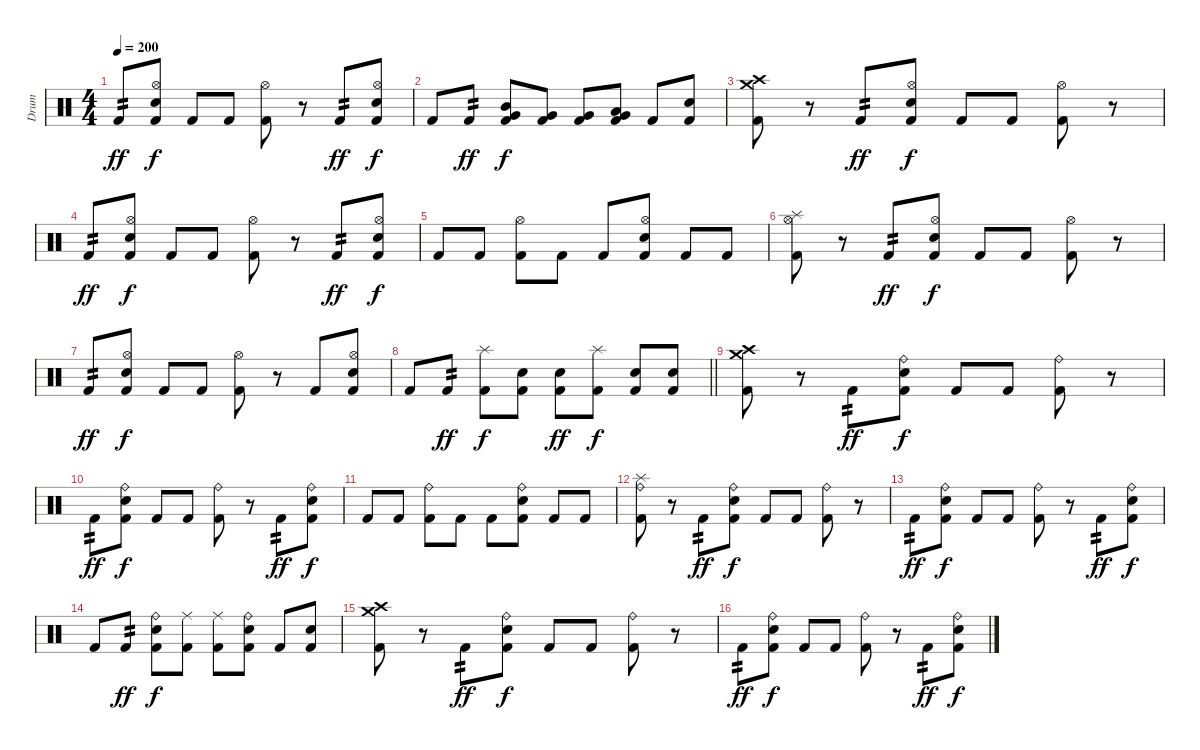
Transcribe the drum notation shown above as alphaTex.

\track ("Drum" "Drum") {instrument percussion}
\staff {score}
\articulation defaults
\ts (4 4)
\tempo 200
\clef neutral
\ks c "Kick (hit) 2".8{tp 2 dy ff}
("Hi-Hat (open)" "Snare (hit) 2" "Kick (hit) 2").8{dy f} "Kick (hit) 2".8 "Kick (hit) 2".8 ("Hi-Hat (open)" "Kick (hit) 2").8 r.8 "Kick (hit) 2".8{tp 2 dy ff} ("Hi-Hat (open)" "Snare (hit) 2" "Kick (hit) 2").8{dy f} |
"Kick (hit) 2".8 "Kick (hit) 2".8{tp 2 dy ff} ("Very Low Tom (hit)" "Mid Tom (hit)" "Kick (hit) 2").8{dy f} ("Very Low Tom (hit)" "Kick (hit) 2").8 ("Very Low Tom (hit)" "Kick (hit) 2").8 ("Very Low Tom (hit)" "Low Tom (hit)" "Kick (hit) 2").8 "Kick (hit) 2".8 ("Snare (hit) 2" "Kick (hit) 2").8 |
("Crash medium (hit)" "Crash high (hit)" "Kick (hit) 2").8 r.8 "Kick (hit) 2".8{tp 2 dy ff} ("Hi-Hat (open)" "Snare (hit) 2" "Kick (hit) 2").8{dy f} "Kick (hit) 2".8 "Kick (hit) 2".8 ("Hi-Hat (open)" "Kick (hit) 2").8 r.8 |
"Kick (hit) 2".8{tp 2 dy ff} ("Hi-Hat (open)" "Snare (hit) 2" "Kick (hit) 2").8{dy f} "Kick (hit) 2".8 "Kick (hit) 2".8 ("Hi-Hat (open)" "Kick (hit) 2").8 r.8 "Kick (hit) 2".8{tp 2 dy ff} ("Hi-Hat (open)" "Snare (hit) 2" "Kick (hit) 2").8{dy f} |
"Kick (hit) 2".8 "Kick (hit) 2".8 ("Hi-Hat (open)" "Kick (hit) 2").8 "Kick (hit) 2".8 "Kick (hit) 2".8 ("Hi-Hat (open)" "Snare (hit) 2" "Kick (hit) 2").8 "Kick (hit) 2".8 "Kick (hit) 2".8 |
("Hi-Hat (open)" "Splash (hit)" "Kick (hit) 2").8 r.8 "Kick (hit) 2".8{tp 2 dy ff} ("Hi-Hat (open)" "Snare (hit) 2" "Kick (hit) 2").8{dy f} "Kick (hit) 2".8 "Kick (hit) 2".8 ("Hi-Hat (open)" "Kick (hit) 2").8 r.8 |
"Kick (hit) 2".8{tp 2 dy ff} ("Hi-Hat (open)" "Snare (hit) 2" "Kick (hit) 2").8{dy f} "Kick (hit) 2".8 "Kick (hit) 2".8 ("Hi-Hat (open)" "Kick (hit) 2").8 r.8 "Kick (hit) 2".8 ("Hi-Hat (open)" "Snare (hit) 2" "Kick (hit) 2").8 |
\barLineRight lightlight "Kick (hit) 2".8 "Kick (hit) 2".8{tp 2 dy ff}
("Splash (hit)" "Kick (hit) 2").8{dy f} ("Snare (hit) 2" "Kick (hit) 2").8 ("Snare (hit) 2" "Kick (hit) 2").8{dy ff} ("Splash (hit)" "Kick (hit) 2").8{dy f} ("Snare (hit) 2" "Kick (hit) 2").8 ("Snare (hit) 2" "Kick (hit) 2").8 |
("Crash medium (hit)" "Crash high (hit)" "Kick (hit) 2").8 r.8 "Kick (hit) 2".8{tp 2 dy ff} ("Ride (bell)" "Snare (hit) 2" "Kick (hit) 2").8{dy f} "Kick (hit) 2".8 "Kick (hit) 2".8 ("Ride (bell)" "Kick (hit) 2").8 r.8 |
"Kick (hit) 2".8{tp 2 dy ff} ("Ride (bell)" "Snare (hit) 2" "Kick (hit) 2").8{dy f} "Kick (hit) 2".8 "Kick (hit) 2".8 ("Ride (bell)" "Kick (hit) 2").8 r.8 "Kick (hit) 2".8{tp 2 dy ff} ("Ride (bell)" "Snare (hit) 2" "Kick (hit) 2").8{dy f} |
"Kick (hit) 2".8 "Kick (hit) 2".8 ("Ride (bell)" "Kick (hit) 2").8 "Kick (hit) 2".8 "Kick (hit) 2".8 ("Ride (bell)" "Snare (hit) 2" "Kick (hit) 2").8 "Kick (hit) 2".8 "Kick (hit) 2".8 |
("Ride (bell)" "Splash (hit)" "Kick (hit) 2").8 r.8 "Kick (hit) 2".8{tp 2 dy ff} ("Ride (bell)" "Snare (hit) 2" "Kick (hit) 2").8{dy f} "Kick (hit) 2".8 "Kick (hit) 2".8 ("Ride (bell)" "Kick (hit) 2").8 r.8 |
"Kick (hit) 2".8{tp 2 dy ff} ("Ride (bell)" "Snare (hit) 2" "Kick (hit) 2").8{dy f} "Kick (hit) 2".8 "Kick (hit) 2".8 ("Ride (bell)" "Kick (hit) 2").8 r.8 "Kick (hit) 2".8{tp 2 dy ff} ("Ride (bell)" "Snare (hit) 2" "Kick (hit) 2").8{dy f} |
"Kick (hit) 2".8 "Kick (hit) 2".8{tp 2 dy ff} ("Ride (bell)" "Snare (hit) 2" "Kick (hit) 2").8{dy f} ("Ride (middle)" "Kick (hit) 2").8 ("Ride (middle)" "Kick (hit) 2").8 ("Ride (bell)" "Snare (hit) 2" "Kick (hit) 2").8 "Kick (hit) 2".8 ("Snare (hit) 2" "Kick (hit) 2").8 |
("Crash medium (hit)" "Crash high (hit)" "Kick (hit) 2").8 r.8 "Kick (hit) 2".8{tp 2 dy ff} ("Ride (bell)" "Snare (hit) 2" "Kick (hit) 2").8{dy f} "Kick (hit) 2".8 "Kick (hit) 2".8 ("Ride (bell)" "Kick (hit) 2").8 r.8 |
"Kick (hit) 2".8{tp 2 dy ff} ("Ride (bell)" "Snare (hit) 2" "Kick (hit) 2").8{dy f} "Kick (hit) 2".8 "Kick (hit) 2".8 ("Ride (bell)" "Kick (hit) 2").8 r.8 "Kick (hit) 2".8{tp 2 dy ff} ("Ride (bell)" "Snare (hit) 2" "Kick (hit) 2").8{dy f}
